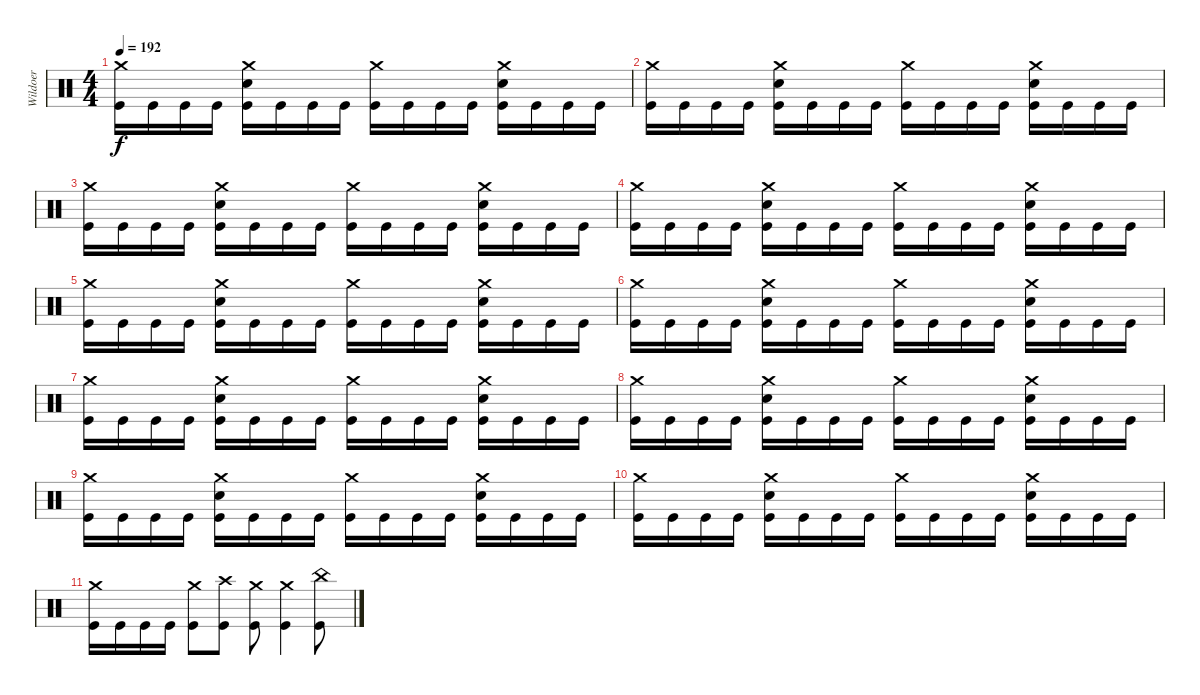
\track ("Wildoer" "Wildoer") {instrument percussion}
\staff {score}
\articulation defaults
\ts (4 4)
\tempo 192
\clef neutral
\ks c
("Crash medium (hit)" "Kick (hit)").16{dy f} "Kick (hit)".16 "Kick (hit)".16 "Kick (hit)".16 ("Crash medium (hit)" "Electric Snare (hit)" "Kick (hit)").16 "Kick (hit)".16 "Kick (hit)".16 "Kick (hit)".16 ("Crash medium (hit)" "Kick (hit)").16 "Kick (hit)".16 "Kick (hit)".16 "Kick (hit)".16 ("Crash medium (hit)" "Electric Snare (hit)" "Kick (hit)").16 "Kick (hit)".16 "Kick (hit)".16 "Kick (hit)".16 |
("Crash medium (hit)" "Kick (hit)").16 "Kick (hit)".16 "Kick (hit)".16 "Kick (hit)".16 ("Crash medium (hit)" "Electric Snare (hit)" "Kick (hit)").16 "Kick (hit)".16 "Kick (hit)".16 "Kick (hit)".16 ("Crash medium (hit)" "Kick (hit)").16 "Kick (hit)".16 "Kick (hit)".16 "Kick (hit)".16 ("Crash medium (hit)" "Electric Snare (hit)" "Kick (hit)").16 "Kick (hit)".16 "Kick (hit)".16 "Kick (hit)".16 |
("Crash medium (hit)" "Kick (hit)").16 "Kick (hit)".16 "Kick (hit)".16 "Kick (hit)".16 ("Crash medium (hit)" "Electric Snare (hit)" "Kick (hit)").16 "Kick (hit)".16 "Kick (hit)".16 "Kick (hit)".16 ("Crash medium (hit)" "Kick (hit)").16 "Kick (hit)".16 "Kick (hit)".16 "Kick (hit)".16 ("Crash medium (hit)" "Electric Snare (hit)" "Kick (hit)").16 "Kick (hit)".16 "Kick (hit)".16 "Kick (hit)".16 |
("Crash medium (hit)" "Kick (hit)").16 "Kick (hit)".16 "Kick (hit)".16 "Kick (hit)".16 ("Crash medium (hit)" "Electric Snare (hit)" "Kick (hit)").16 "Kick (hit)".16 "Kick (hit)".16 "Kick (hit)".16 ("Crash medium (hit)" "Kick (hit)").16 "Kick (hit)".16 "Kick (hit)".16 "Kick (hit)".16 ("Crash medium (hit)" "Electric Snare (hit)" "Kick (hit)").16 "Kick (hit)".16 "Kick (hit)".16 "Kick (hit)".16 |
("Crash medium (hit)" "Kick (hit)").16 "Kick (hit)".16 "Kick (hit)".16 "Kick (hit)".16 ("Crash medium (hit)" "Electric Snare (hit)" "Kick (hit)").16 "Kick (hit)".16 "Kick (hit)".16 "Kick (hit)".16 ("Crash medium (hit)" "Kick (hit)").16 "Kick (hit)".16 "Kick (hit)".16 "Kick (hit)".16 ("Crash medium (hit)" "Electric Snare (hit)" "Kick (hit)").16 "Kick (hit)".16 "Kick (hit)".16 "Kick (hit)".16 |
("Crash medium (hit)" "Kick (hit)").16 "Kick (hit)".16 "Kick (hit)".16 "Kick (hit)".16 ("Crash medium (hit)" "Electric Snare (hit)" "Kick (hit)").16 "Kick (hit)".16 "Kick (hit)".16 "Kick (hit)".16 ("Crash medium (hit)" "Kick (hit)").16 "Kick (hit)".16 "Kick (hit)".16 "Kick (hit)".16 ("Crash medium (hit)" "Electric Snare (hit)" "Kick (hit)").16 "Kick (hit)".16 "Kick (hit)".16 "Kick (hit)".16 |
("Crash medium (hit)" "Kick (hit)").16 "Kick (hit)".16 "Kick (hit)".16 "Kick (hit)".16 ("Crash medium (hit)" "Electric Snare (hit)" "Kick (hit)").16 "Kick (hit)".16 "Kick (hit)".16 "Kick (hit)".16 ("Crash medium (hit)" "Kick (hit)").16 "Kick (hit)".16 "Kick (hit)".16 "Kick (hit)".16 ("Crash medium (hit)" "Electric Snare (hit)" "Kick (hit)").16 "Kick (hit)".16 "Kick (hit)".16 "Kick (hit)".16 |
("Crash medium (hit)" "Kick (hit)").16 "Kick (hit)".16 "Kick (hit)".16 "Kick (hit)".16 ("Crash medium (hit)" "Electric Snare (hit)" "Kick (hit)").16 "Kick (hit)".16 "Kick (hit)".16 "Kick (hit)".16 ("Crash medium (hit)" "Kick (hit)").16 "Kick (hit)".16 "Kick (hit)".16 "Kick (hit)".16 ("Crash medium (hit)" "Electric Snare (hit)" "Kick (hit)").16 "Kick (hit)".16 "Kick (hit)".16 "Kick (hit)".16 |
("Crash medium (hit)" "Kick (hit)").16 "Kick (hit)".16 "Kick (hit)".16 "Kick (hit)".16 ("Crash medium (hit)" "Electric Snare (hit)" "Kick (hit)").16 "Kick (hit)".16 "Kick (hit)".16 "Kick (hit)".16 ("Crash medium (hit)" "Kick (hit)").16 "Kick (hit)".16 "Kick (hit)".16 "Kick (hit)".16 ("Crash medium (hit)" "Electric Snare (hit)" "Kick (hit)").16 "Kick (hit)".16 "Kick (hit)".16 "Kick (hit)".16 |
("Crash medium (hit)" "Kick (hit)").16 "Kick (hit)".16 "Kick (hit)".16 "Kick (hit)".16 ("Crash medium (hit)" "Electric Snare (hit)" "Kick (hit)").16 "Kick (hit)".16 "Kick (hit)".16 "Kick (hit)".16 ("Crash medium (hit)" "Kick (hit)").16 "Kick (hit)".16 "Kick (hit)".16 "Kick (hit)".16 ("Crash medium (hit)" "Electric Snare (hit)" "Kick (hit)").16 "Kick (hit)".16 "Kick (hit)".16 "Kick (hit)".16 |
("Crash medium (hit)" "Kick (hit)").16 "Kick (hit)".16 "Kick (hit)".16 "Kick (hit)".16 ("Crash medium (hit)" "Kick (hit)").8 ("Crash high (hit)" "Kick (hit)").8 ("Crash medium (hit)" "Kick (hit)").8 ("Crash medium (hit)" "Kick (hit)").4 ("China (hit)" "Kick (hit)").8
